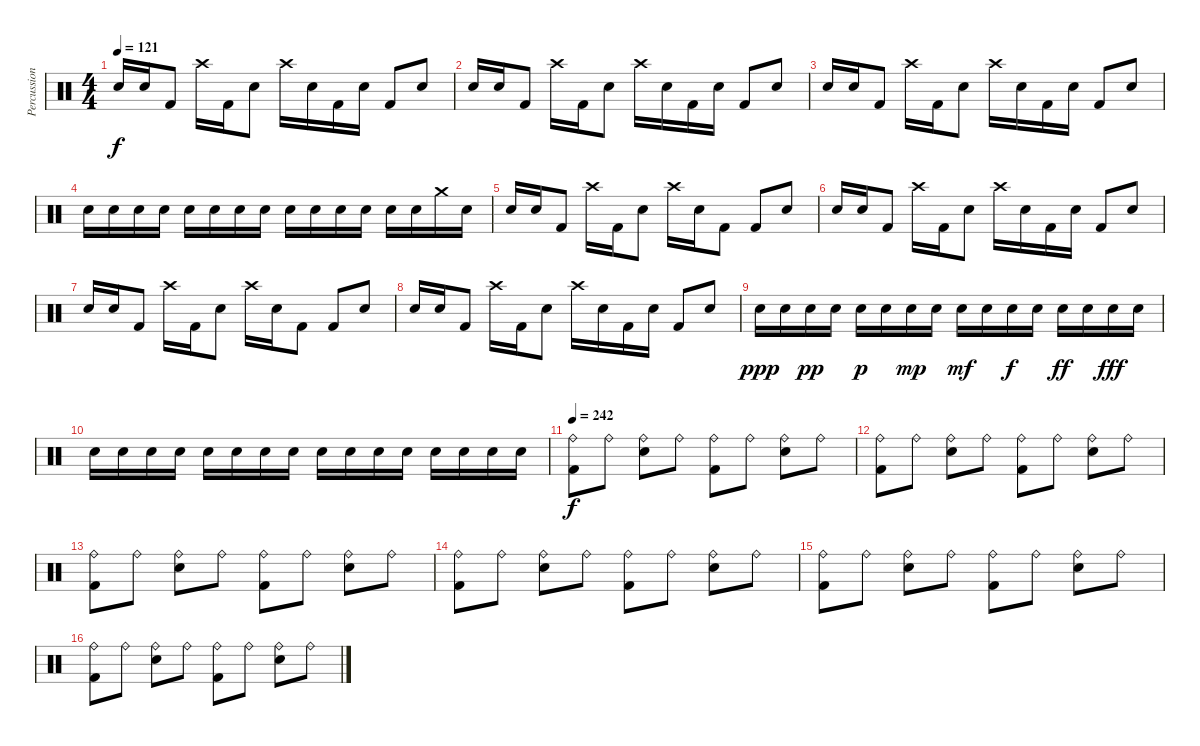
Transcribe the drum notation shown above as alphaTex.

\track ("Percussions" "Percussion") {instrument percussion}
\staff {score}
\articulation defaults
\ts (4 4)
\tempo 121
\clef neutral
\ks c "Electric Snare (hit)".16{dy f} "Electric Snare (hit)".16 "Kick (hit) 2".8 "Crash high (hit)".16 "Kick (hit) 2".16 "Electric Snare (hit)".8 "Crash high (hit)".16 "Electric Snare (hit)".16 "Kick (hit) 2".16 "Electric Snare (hit)".16 "Kick (hit) 2".8 "Electric Snare (hit)".8
|
"Electric Snare (hit)".16 "Electric Snare (hit)".16 "Kick (hit) 2".8 "Crash high (hit)".16 "Kick (hit) 2".16 "Electric Snare (hit)".8 "Crash high (hit)".16 "Electric Snare (hit)".16 "Kick (hit) 2".16 "Electric Snare (hit)".16 "Kick (hit) 2".8 "Electric Snare (hit)".8 |
"Electric Snare (hit)".16 "Electric Snare (hit)".16 "Kick (hit) 2".8 "Crash high (hit)".16 "Kick (hit) 2".16 "Electric Snare (hit)".8 "Crash high (hit)".16 "Electric Snare (hit)".16 "Kick (hit) 2".16 "Electric Snare (hit)".16 "Kick (hit) 2".8 "Electric Snare (hit)".8 |
"Electric Snare (hit)".16 "Electric Snare (hit)".16 "Electric Snare (hit)".16 "Electric Snare (hit)".16 "Electric Snare (hit)".16 "Electric Snare (hit)".16 "Electric Snare (hit)".16 "Electric Snare (hit)".16 "Electric Snare (hit)".16 "Electric Snare (hit)".16 "Electric Snare (hit)".16 "Electric Snare (hit)".16 "Electric Snare (hit)".16 "Electric Snare (hit)".16 "Crash medium (hit)".16 "Electric Snare (hit)".16 |
"Electric Snare (hit)".16 "Electric Snare (hit)".16 "Kick (hit) 2".8 "Crash high (hit)".16 "Kick (hit) 2".16 "Electric Snare (hit)".8 "Crash high (hit)".16 "Electric Snare (hit)".16 "Kick (hit) 2".8 "Kick (hit) 2".8 "Electric Snare (hit)".8 |
"Electric Snare (hit)".16 "Electric Snare (hit)".16 "Kick (hit) 2".8 "Crash high (hit)".16 "Kick (hit) 2".16 "Electric Snare (hit)".8 "Crash high (hit)".16 "Electric Snare (hit)".16 "Kick (hit) 2".16 "Electric Snare (hit)".16 "Kick (hit) 2".8 "Electric Snare (hit)".8 |
"Electric Snare (hit)".16 "Electric Snare (hit)".16 "Kick (hit) 2".8 "Crash high (hit)".16 "Kick (hit) 2".16 "Electric Snare (hit)".8 "Crash high (hit)".16 "Electric Snare (hit)".16 "Kick (hit) 2".8 "Kick (hit) 2".8 "Electric Snare (hit)".8 |
"Electric Snare (hit)".16 "Electric Snare (hit)".16 "Kick (hit) 2".8 "Crash high (hit)".16 "Kick (hit) 2".16 "Electric Snare (hit)".8 "Crash high (hit)".16 "Electric Snare (hit)".16 "Kick (hit) 2".16 "Electric Snare (hit)".16 "Kick (hit) 2".8 "Electric Snare (hit)".8 |
"Electric Snare (hit)".16{dy ppp} "Electric Snare (hit)".16 "Electric Snare (hit)".16{dy pp} "Electric Snare (hit)".16 "Electric Snare (hit)".16{dy p} "Electric Snare (hit)".16 "Electric Snare (hit)".16{dy mp} "Electric Snare (hit)".16 "Electric Snare (hit)".16{dy mf} "Electric Snare (hit)".16 "Electric Snare (hit)".16{dy f} "Electric Snare (hit)".16 "Electric Snare (hit)".16{dy ff} "Electric Snare (hit)".16 "Electric Snare (hit)".16{dy fff} "Electric Snare (hit)".16 |
"Electric Snare (hit)".16 "Electric Snare (hit)".16 "Electric Snare (hit)".16 "Electric Snare (hit)".16 "Electric Snare (hit)".16 "Electric Snare (hit)".16 "Electric Snare (hit)".16 "Electric Snare (hit)".16 "Electric Snare (hit)".16 "Electric Snare (hit)".16 "Electric Snare (hit)".16 "Electric Snare (hit)".16 "Electric Snare (hit)".16 "Electric Snare (hit)".16 "Electric Snare (hit)".16 "Electric Snare (hit)".16 |
\tempo 242
("Ride (bell)" "Kick (hit) 2").8{dy f} "Ride (bell)".8 ("Ride (bell)" "Electric Snare (hit)").8 "Ride (bell)".8 ("Ride (bell)" "Kick (hit) 2").8 "Ride (bell)".8 ("Ride (bell)" "Electric Snare (hit)").8 "Ride (bell)".8 |
("Ride (bell)" "Kick (hit) 2").8 "Ride (bell)".8 ("Ride (bell)" "Electric Snare (hit)").8 "Ride (bell)".8 ("Ride (bell)" "Kick (hit) 2").8 "Ride (bell)".8 ("Ride (bell)" "Electric Snare (hit)").8 "Ride (bell)".8 |
("Ride (bell)" "Kick (hit) 2").8 "Ride (bell)".8 ("Ride (bell)" "Electric Snare (hit)").8 "Ride (bell)".8 ("Ride (bell)" "Kick (hit) 2").8 "Ride (bell)".8 ("Ride (bell)" "Electric Snare (hit)").8 "Ride (bell)".8 |
("Ride (bell)" "Kick (hit) 2").8 "Ride (bell)".8 ("Ride (bell)" "Electric Snare (hit)").8 "Ride (bell)".8 ("Ride (bell)" "Kick (hit) 2").8 "Ride (bell)".8 ("Ride (bell)" "Electric Snare (hit)").8 "Ride (bell)".8 |
("Ride (bell)" "Kick (hit) 2").8 "Ride (bell)".8 ("Ride (bell)" "Electric Snare (hit)").8 "Ride (bell)".8 ("Ride (bell)" "Kick (hit) 2").8 "Ride (bell)".8 ("Ride (bell)" "Electric Snare (hit)").8 "Ride (bell)".8 |
("Ride (bell)" "Kick (hit) 2").8 "Ride (bell)".8 ("Ride (bell)" "Electric Snare (hit)").8 "Ride (bell)".8 ("Ride (bell)" "Kick (hit) 2").8 "Ride (bell)".8 ("Ride (bell)" "Electric Snare (hit)").8 "Ride (bell)".8
